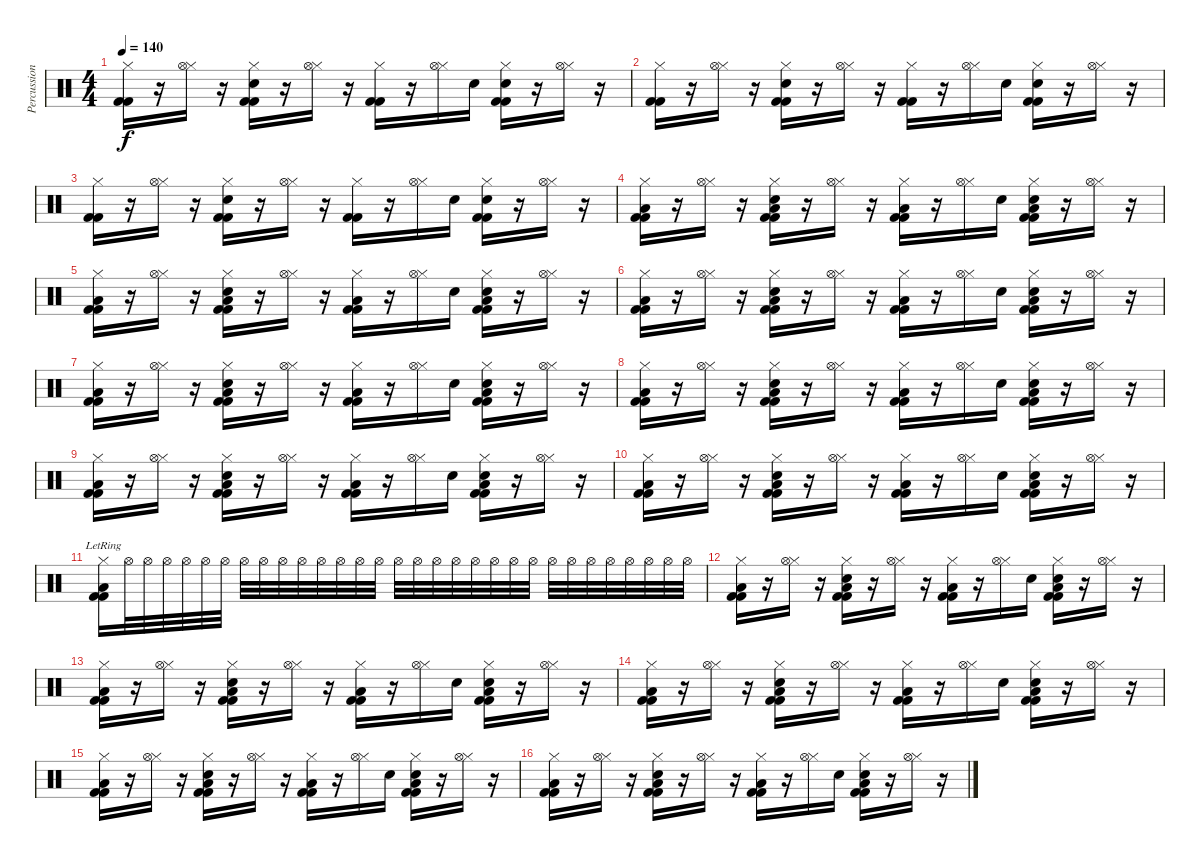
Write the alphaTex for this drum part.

\track ("Percussion" "Percussion") {instrument percussion}
\staff {score}
\articulation defaults
\ts (4 4)
\tempo 140
\clef neutral
\ks c
("Hi-Hat (closed)" "Kick (hit) 2" "Kick (hit) 2").16{dy f} r.16 ("Hi-Hat (closed)" "Hi-Hat (open)").16 r.16 ("Hi-Hat (closed)" "Kick (hit) 2" "Kick (hit) 2" "Hand Clap (hit)").16 r.16 ("Hi-Hat (closed)" "Hi-Hat (open)").16 r.16 ("Hi-Hat (closed)" "Kick (hit) 2" "Kick (hit) 2").16 r.16 ("Hi-Hat (closed)" "Hi-Hat (open)").16 "Hand Clap (hit)".16 ("Hi-Hat (closed)" "Kick (hit) 2" "Kick (hit) 2" "Hand Clap (hit)").16 r.16 ("Hi-Hat (closed)" "Hi-Hat (open)").16 r.16 |
("Hi-Hat (closed)" "Kick (hit) 2" "Kick (hit) 2").16 r.16 ("Hi-Hat (closed)" "Hi-Hat (open)").16 r.16 ("Hi-Hat (closed)" "Kick (hit) 2" "Kick (hit) 2" "Hand Clap (hit)").16 r.16 ("Hi-Hat (closed)" "Hi-Hat (open)").16 r.16 ("Hi-Hat (closed)" "Kick (hit) 2" "Kick (hit) 2").16 r.16 ("Hi-Hat (closed)" "Hi-Hat (open)").16 "Hand Clap (hit)".16 ("Hi-Hat (closed)" "Kick (hit) 2" "Kick (hit) 2" "Hand Clap (hit)").16 r.16 ("Hi-Hat (closed)" "Hi-Hat (open)").16 r.16 |
("Hi-Hat (closed)" "Kick (hit) 2" "Kick (hit) 2").16 r.16 ("Hi-Hat (closed)" "Hi-Hat (open)").16 r.16 ("Hi-Hat (closed)" "Kick (hit) 2" "Kick (hit) 2" "Hand Clap (hit)").16 r.16 ("Hi-Hat (closed)" "Hi-Hat (open)").16 r.16 ("Hi-Hat (closed)" "Kick (hit) 2" "Kick (hit) 2").16 r.16 ("Hi-Hat (closed)" "Hi-Hat (open)").16 "Hand Clap (hit)".16 ("Hi-Hat (closed)" "Kick (hit) 2" "Kick (hit) 2" "Hand Clap (hit)").16 r.16 ("Hi-Hat (closed)" "Hi-Hat (open)").16 r.16 |
("Hi-Hat (closed)" "Low Tom (hit)" "Kick (hit) 2" "Kick (hit) 2").16 r.16 ("Hi-Hat (closed)" "Hi-Hat (open)").16 r.16 ("Hi-Hat (closed)" "Low Tom (hit)" "Kick (hit) 2" "Kick (hit) 2" "Hand Clap (hit)").16 r.16 ("Hi-Hat (closed)" "Hi-Hat (open)").16 r.16 ("Hi-Hat (closed)" "Low Tom (hit)" "Kick (hit) 2" "Kick (hit) 2").16 r.16 ("Hi-Hat (closed)" "Hi-Hat (open)").16 "Hand Clap (hit)".16 ("Hi-Hat (closed)" "Low Tom (hit)" "Kick (hit) 2" "Kick (hit) 2" "Hand Clap (hit)").16 r.16 ("Hi-Hat (closed)" "Hi-Hat (open)").16 r.16 |
("Hi-Hat (closed)" "Low Tom (hit)" "Kick (hit) 2" "Kick (hit) 2").16 r.16 ("Hi-Hat (closed)" "Hi-Hat (open)").16 r.16 ("Hi-Hat (closed)" "Low Tom (hit)" "Kick (hit) 2" "Kick (hit) 2" "Hand Clap (hit)").16 r.16 ("Hi-Hat (closed)" "Hi-Hat (open)").16 r.16 ("Hi-Hat (closed)" "Low Tom (hit)" "Kick (hit) 2" "Kick (hit) 2").16 r.16 ("Hi-Hat (closed)" "Hi-Hat (open)").16 "Hand Clap (hit)".16 ("Hi-Hat (closed)" "Low Tom (hit)" "Kick (hit) 2" "Kick (hit) 2" "Hand Clap (hit)").16 r.16 ("Hi-Hat (closed)" "Hi-Hat (open)").16 r.16 |
("Hi-Hat (closed)" "Low Tom (hit)" "Kick (hit) 2" "Kick (hit) 2").16 r.16 ("Hi-Hat (closed)" "Hi-Hat (open)").16 r.16 ("Hi-Hat (closed)" "Low Tom (hit)" "Kick (hit) 2" "Kick (hit) 2" "Hand Clap (hit)").16 r.16 ("Hi-Hat (closed)" "Hi-Hat (open)").16 r.16 ("Hi-Hat (closed)" "Low Tom (hit)" "Kick (hit) 2" "Kick (hit) 2").16 r.16 ("Hi-Hat (closed)" "Hi-Hat (open)").16 "Hand Clap (hit)".16 ("Hi-Hat (closed)" "Low Tom (hit)" "Kick (hit) 2" "Kick (hit) 2" "Hand Clap (hit)").16 r.16 ("Hi-Hat (closed)" "Hi-Hat (open)").16 r.16 |
("Hi-Hat (closed)" "Low Tom (hit)" "Kick (hit) 2" "Kick (hit) 2").16 r.16 ("Hi-Hat (closed)" "Hi-Hat (open)").16 r.16 ("Hi-Hat (closed)" "Low Tom (hit)" "Kick (hit) 2" "Kick (hit) 2" "Hand Clap (hit)").16 r.16 ("Hi-Hat (closed)" "Hi-Hat (open)").16 r.16 ("Hi-Hat (closed)" "Low Tom (hit)" "Kick (hit) 2" "Kick (hit) 2").16 r.16 ("Hi-Hat (closed)" "Hi-Hat (open)").16 "Hand Clap (hit)".16 ("Hi-Hat (closed)" "Low Tom (hit)" "Kick (hit) 2" "Kick (hit) 2" "Hand Clap (hit)").16 r.16 ("Hi-Hat (closed)" "Hi-Hat (open)").16 r.16 |
("Hi-Hat (closed)" "Low Tom (hit)" "Kick (hit) 2" "Kick (hit) 2").16 r.16 ("Hi-Hat (closed)" "Hi-Hat (open)").16 r.16 ("Hi-Hat (closed)" "Low Tom (hit)" "Kick (hit) 2" "Kick (hit) 2" "Hand Clap (hit)").16 r.16 ("Hi-Hat (closed)" "Hi-Hat (open)").16 r.16 ("Hi-Hat (closed)" "Low Tom (hit)" "Kick (hit) 2" "Kick (hit) 2").16 r.16 ("Hi-Hat (closed)" "Hi-Hat (open)").16 "Hand Clap (hit)".16 ("Hi-Hat (closed)" "Low Tom (hit)" "Kick (hit) 2" "Kick (hit) 2" "Hand Clap (hit)").16 r.16 ("Hi-Hat (closed)" "Hi-Hat (open)").16 r.16 |
("Hi-Hat (closed)" "Low Tom (hit)" "Kick (hit) 2" "Kick (hit) 2").16 r.16 ("Hi-Hat (closed)" "Hi-Hat (open)").16 r.16 ("Hi-Hat (closed)" "Low Tom (hit)" "Kick (hit) 2" "Kick (hit) 2" "Hand Clap (hit)").16 r.16 ("Hi-Hat (closed)" "Hi-Hat (open)").16 r.16 ("Hi-Hat (closed)" "Low Tom (hit)" "Kick (hit) 2" "Kick (hit) 2").16 r.16 ("Hi-Hat (closed)" "Hi-Hat (open)").16 "Hand Clap (hit)".16 ("Hi-Hat (closed)" "Low Tom (hit)" "Kick (hit) 2" "Kick (hit) 2" "Hand Clap (hit)").16 r.16 ("Hi-Hat (closed)" "Hi-Hat (open)").16 r.16 |
("Hi-Hat (closed)" "Low Tom (hit)" "Kick (hit) 2" "Kick (hit) 2").16 r.16 ("Hi-Hat (closed)" "Hi-Hat (open)").16 r.16 ("Hi-Hat (closed)" "Low Tom (hit)" "Kick (hit) 2" "Kick (hit) 2" "Hand Clap (hit)").16 r.16 ("Hi-Hat (closed)" "Hi-Hat (open)").16 r.16 ("Hi-Hat (closed)" "Low Tom (hit)" "Kick (hit) 2" "Kick (hit) 2").16 r.16 ("Hi-Hat (closed)" "Hi-Hat (open)").16 "Hand Clap (hit)".16 ("Hi-Hat (closed)" "Low Tom (hit)" "Kick (hit) 2" "Kick (hit) 2" "Hand Clap (hit)").16 r.16 ("Hi-Hat (closed)" "Hi-Hat (open)").16 r.16 |
("Hi-Hat (closed)"{lr} "Low Tom (hit)"{lr} "Kick (hit) 2"{lr} "Kick (hit) 2"{lr}).16 "Hi-Hat (open)".32 "Hi-Hat (open)".32 "Hi-Hat (open)".32 "Hi-Hat (open)".32 "Hi-Hat (open)".32 "Hi-Hat (open)".32 "Hi-Hat (open)".32 "Hi-Hat (open)".32 "Hi-Hat (open)".32 "Hi-Hat (open)".32 "Hi-Hat (open)".32 "Hi-Hat (open)".32 "Hi-Hat (open)".32 "Hi-Hat (open)".32 "Hi-Hat (open)".32 "Hi-Hat (open)".32 "Hi-Hat (open)".32 "Hi-Hat (open)".32 "Hi-Hat (open)".32 "Hi-Hat (open)".32 "Hi-Hat (open)".32 "Hi-Hat (open)".32 "Hi-Hat (open)".32 "Hi-Hat (open)".32 "Hi-Hat (open)".32 "Hi-Hat (open)".32 "Hi-Hat (open)".32 "Hi-Hat (open)".32 "Hi-Hat (open)".32 "Hi-Hat (open)".32 |
("Hi-Hat (closed)" "Low Tom (hit)" "Kick (hit) 2" "Kick (hit) 2").16 r.16 ("Hi-Hat (closed)" "Hi-Hat (open)").16 r.16 ("Hi-Hat (closed)" "Low Tom (hit)" "Kick (hit) 2" "Kick (hit) 2" "Hand Clap (hit)").16 r.16 ("Hi-Hat (closed)" "Hi-Hat (open)").16 r.16 ("Hi-Hat (closed)" "Low Tom (hit)" "Kick (hit) 2" "Kick (hit) 2").16 r.16 ("Hi-Hat (closed)" "Hi-Hat (open)").16 "Hand Clap (hit)".16 ("Hi-Hat (closed)" "Low Tom (hit)" "Kick (hit) 2" "Kick (hit) 2" "Hand Clap (hit)").16 r.16 ("Hi-Hat (closed)" "Hi-Hat (open)").16 r.16 |
("Hi-Hat (closed)" "Low Tom (hit)" "Kick (hit) 2" "Kick (hit) 2").16 r.16 ("Hi-Hat (closed)" "Hi-Hat (open)").16 r.16 ("Hi-Hat (closed)" "Low Tom (hit)" "Kick (hit) 2" "Kick (hit) 2" "Hand Clap (hit)").16 r.16 ("Hi-Hat (closed)" "Hi-Hat (open)").16 r.16 ("Hi-Hat (closed)" "Low Tom (hit)" "Kick (hit) 2" "Kick (hit) 2").16 r.16 ("Hi-Hat (closed)" "Hi-Hat (open)").16 "Hand Clap (hit)".16 ("Hi-Hat (closed)" "Low Tom (hit)" "Kick (hit) 2" "Kick (hit) 2" "Hand Clap (hit)").16 r.16 ("Hi-Hat (closed)" "Hi-Hat (open)").16 r.16 |
("Hi-Hat (closed)" "Low Tom (hit)" "Kick (hit) 2" "Kick (hit) 2").16 r.16 ("Hi-Hat (closed)" "Hi-Hat (open)").16 r.16 ("Hi-Hat (closed)" "Low Tom (hit)" "Kick (hit) 2" "Kick (hit) 2" "Hand Clap (hit)").16 r.16 ("Hi-Hat (closed)" "Hi-Hat (open)").16 r.16 ("Hi-Hat (closed)" "Low Tom (hit)" "Kick (hit) 2" "Kick (hit) 2").16 r.16 ("Hi-Hat (closed)" "Hi-Hat (open)").16 "Hand Clap (hit)".16 ("Hi-Hat (closed)" "Low Tom (hit)" "Kick (hit) 2" "Kick (hit) 2" "Hand Clap (hit)").16 r.16 ("Hi-Hat (closed)" "Hi-Hat (open)").16 r.16 |
("Hi-Hat (closed)" "Low Tom (hit)" "Kick (hit) 2" "Kick (hit) 2").16 r.16 ("Hi-Hat (closed)" "Hi-Hat (open)").16 r.16 ("Hi-Hat (closed)" "Low Tom (hit)" "Kick (hit) 2" "Kick (hit) 2" "Hand Clap (hit)").16 r.16 ("Hi-Hat (closed)" "Hi-Hat (open)").16 r.16 ("Hi-Hat (closed)" "Low Tom (hit)" "Kick (hit) 2" "Kick (hit) 2").16 r.16 ("Hi-Hat (closed)" "Hi-Hat (open)").16 "Hand Clap (hit)".16 ("Hi-Hat (closed)" "Low Tom (hit)" "Kick (hit) 2" "Kick (hit) 2" "Hand Clap (hit)").16 r.16 ("Hi-Hat (closed)" "Hi-Hat (open)").16 r.16 |
("Hi-Hat (closed)" "Low Tom (hit)" "Kick (hit) 2" "Kick (hit) 2").16 r.16 ("Hi-Hat (closed)" "Hi-Hat (open)").16 r.16 ("Hi-Hat (closed)" "Low Tom (hit)" "Kick (hit) 2" "Kick (hit) 2" "Hand Clap (hit)").16 r.16 ("Hi-Hat (closed)" "Hi-Hat (open)").16 r.16 ("Hi-Hat (closed)" "Low Tom (hit)" "Kick (hit) 2" "Kick (hit) 2").16 r.16 ("Hi-Hat (closed)" "Hi-Hat (open)").16 "Hand Clap (hit)".16 ("Hi-Hat (closed)" "Low Tom (hit)" "Kick (hit) 2" "Kick (hit) 2" "Hand Clap (hit)").16 r.16 ("Hi-Hat (closed)" "Hi-Hat (open)").16 r.16
